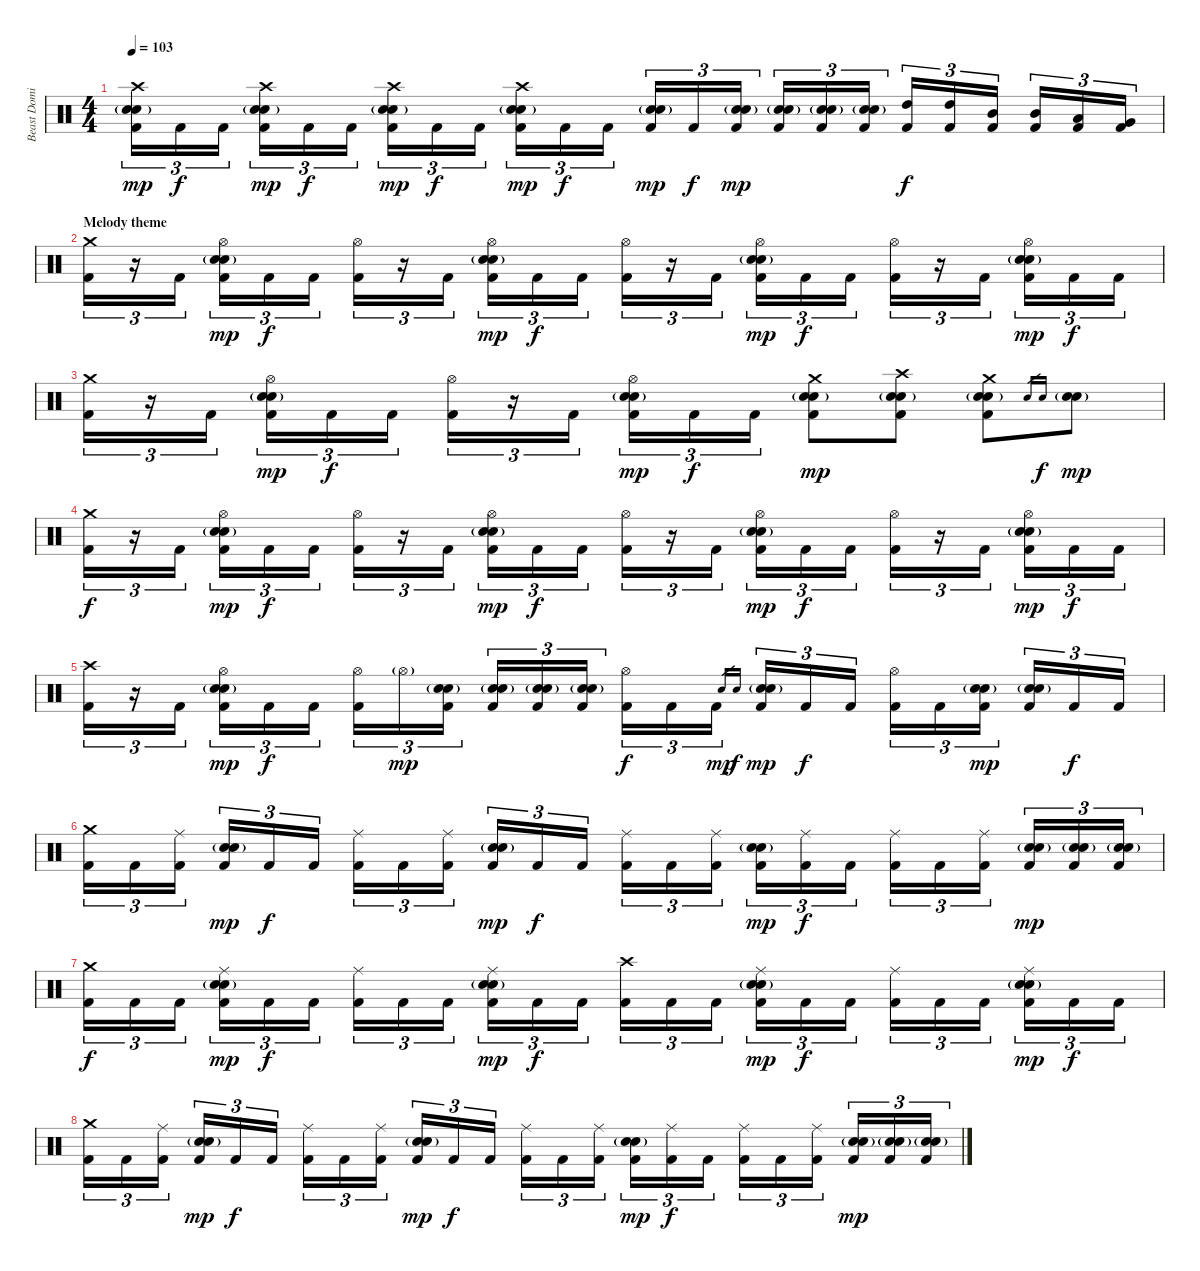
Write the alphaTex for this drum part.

\track ("Beast Dominator" "Beast Domi") {instrument percussion}
\staff {score}
\articulation defaults
\ts (4 4)
\tempo 103
\clef neutral
\ks c
("Crash high (hit)" "Electric Snare (hit)"{g} "Snare (hit) 2" "Kick (hit) 2").16{tu (3 2) dy mp} "Kick (hit) 2".16{tu (3 2) dy f} "Kick (hit) 2".16{tu (3 2)} ("Crash high (hit)" "Electric Snare (hit)"{g} "Snare (hit) 2" "Kick (hit) 2").16{tu (3 2) dy mp} "Kick (hit) 2".16{tu (3 2) dy f} "Kick (hit) 2".16{tu (3 2)} ("Crash high (hit)" "Electric Snare (hit)"{g} "Snare (hit) 2" "Kick (hit) 2").16{tu (3 2) dy mp} "Kick (hit) 2".16{tu (3 2) dy f} "Kick (hit) 2".16{tu (3 2)} ("Crash high (hit)" "Electric Snare (hit)"{g} "Snare (hit) 2" "Kick (hit) 2").16{tu (3 2) dy mp} "Kick (hit) 2".16{tu (3 2) dy f} "Kick (hit) 2".16{tu (3 2)} ("Electric Snare (hit)"{g} "Snare (hit) 2" "Kick (hit) 2").16{tu (3 2) dy mp} "Kick (hit) 2".16{tu (3 2) dy f} ("Electric Snare (hit)"{g} "Snare (hit) 2" "Kick (hit) 2").16{tu (3 2) dy mp} ("Electric Snare (hit)"{g} "Snare (hit) 2" "Kick (hit) 2").16{tu (3 2)} ("Electric Snare (hit)"{g} "Snare (hit) 2" "Kick (hit) 2").16{tu (3 2)} ("Electric Snare (hit)"{g} "Snare (hit) 2" "Kick (hit) 2").16{tu (3 2)} ("High Tom (hit)" "Kick (hit) 2").16{tu (3 2) dy f} ("High Tom (hit)" "Kick (hit) 2").16{tu (3 2)} ("Mid Tom (hit)" "Kick (hit) 2").16{tu (3 2)} ("Mid Tom (hit)" "Kick (hit) 2").16{tu (3 2)} ("Low Tom (hit)" "Kick (hit) 2").16{tu (3 2)} ("Very Low Tom (hit)" "Kick (hit) 2").16{tu (3 2)} |
\section ("" "Melody theme")
("Crash medium (hit)" "Kick (hit) 2").16{tu (3 2)} r.16{tu (3 2)} "Kick (hit) 2".16{tu (3 2)} ("Hi-Hat (open)" "Electric Snare (hit)"{g} "Snare (hit) 2" "Kick (hit) 2").16{tu (3 2) dy mp} "Kick (hit) 2".16{tu (3 2) dy f} "Kick (hit) 2".16{tu (3 2)} ("Hi-Hat (open)" "Kick (hit) 2").16{tu (3 2)} r.16{tu (3 2)} "Kick (hit) 2".16{tu (3 2)} ("Hi-Hat (open)" "Electric Snare (hit)"{g} "Snare (hit) 2" "Kick (hit) 2").16{tu (3 2) dy mp} "Kick (hit) 2".16{tu (3 2) dy f} "Kick (hit) 2".16{tu (3 2)} ("Hi-Hat (open)" "Kick (hit) 2").16{tu (3 2)} r.16{tu (3 2)} "Kick (hit) 2".16{tu (3 2)} ("Hi-Hat (open)" "Electric Snare (hit)"{g} "Snare (hit) 2" "Kick (hit) 2").16{tu (3 2) dy mp} "Kick (hit) 2".16{tu (3 2) dy f} "Kick (hit) 2".16{tu (3 2)} ("Hi-Hat (open)" "Kick (hit) 2").16{tu (3 2)} r.16{tu (3 2)} "Kick (hit) 2".16{tu (3 2)} ("Hi-Hat (open)" "Electric Snare (hit)"{g} "Snare (hit) 2" "Kick (hit) 2").16{tu (3 2) dy mp} "Kick (hit) 2".16{tu (3 2) dy f} "Kick (hit) 2".16{tu (3 2)} |
("Crash medium (hit)" "Kick (hit) 2").16{tu (3 2)} r.16{tu (3 2)} "Kick (hit) 2".16{tu (3 2)} ("Hi-Hat (open)" "Electric Snare (hit)"{g} "Snare (hit) 2" "Kick (hit) 2").16{tu (3 2) dy mp} "Kick (hit) 2".16{tu (3 2) dy f} "Kick (hit) 2".16{tu (3 2)} ("Hi-Hat (open)" "Kick (hit) 2").16{tu (3 2)} r.16{tu (3 2)} "Kick (hit) 2".16{tu (3 2)} ("Hi-Hat (open)" "Electric Snare (hit)"{g} "Snare (hit) 2" "Kick (hit) 2").16{tu (3 2) dy mp} "Kick (hit) 2".16{tu (3 2) dy f} "Kick (hit) 2".16{tu (3 2)} ("Crash medium (hit)" "Electric Snare (hit)"{g} "Snare (hit) 2" "Kick (hit) 2").8{dy mp} ("Crash high (hit)" "Electric Snare (hit)"{g} "Snare (hit) 2" "Kick (hit) 2").8 ("Crash medium (hit)" "Electric Snare (hit)"{g} "Snare (hit) 2" "Kick (hit) 2").8 "Electric Snare (hit)".16{gr} "Snare (hit) 2".16{gr dy f} ("Electric Snare (hit)"{g} "Snare (hit) 2").8{dy mp} |
("Crash medium (hit)" "Kick (hit) 2").16{tu (3 2) dy f} r.16{tu (3 2)} "Kick (hit) 2".16{tu (3 2)} ("Hi-Hat (open)" "Electric Snare (hit)"{g} "Snare (hit) 2" "Kick (hit) 2").16{tu (3 2) dy mp} "Kick (hit) 2".16{tu (3 2) dy f} "Kick (hit) 2".16{tu (3 2)} ("Hi-Hat (open)" "Kick (hit) 2").16{tu (3 2)} r.16{tu (3 2)} "Kick (hit) 2".16{tu (3 2)} ("Hi-Hat (open)" "Electric Snare (hit)"{g} "Snare (hit) 2" "Kick (hit) 2").16{tu (3 2) dy mp} "Kick (hit) 2".16{tu (3 2) dy f} "Kick (hit) 2".16{tu (3 2)} ("Hi-Hat (open)" "Kick (hit) 2").16{tu (3 2)} r.16{tu (3 2)} "Kick (hit) 2".16{tu (3 2)} ("Hi-Hat (open)" "Electric Snare (hit)"{g} "Snare (hit) 2" "Kick (hit) 2").16{tu (3 2) dy mp} "Kick (hit) 2".16{tu (3 2) dy f} "Kick (hit) 2".16{tu (3 2)} ("Hi-Hat (open)" "Kick (hit) 2").16{tu (3 2)} r.16{tu (3 2)} "Kick (hit) 2".16{tu (3 2)} ("Hi-Hat (open)" "Electric Snare (hit)"{g} "Snare (hit) 2" "Kick (hit) 2").16{tu (3 2) dy mp} "Kick (hit) 2".16{tu (3 2) dy f} "Kick (hit) 2".16{tu (3 2)} |
("Crash high (hit)" "Kick (hit) 2").16{tu (3 2)} r.16{tu (3 2)} "Kick (hit) 2".16{tu (3 2)} ("Hi-Hat (open)" "Electric Snare (hit)"{g} "Snare (hit) 2" "Kick (hit) 2").16{tu (3 2) dy mp} "Kick (hit) 2".16{tu (3 2) dy f} "Kick (hit) 2".16{tu (3 2)} ("Hi-Hat (open)" "Kick (hit) 2").16{tu (3 2)} "Hi-Hat (open)"{g}.16{tu (3 2) dy mp} ("Electric Snare (hit)"{g} "Snare (hit) 2" "Kick (hit) 2").16{tu (3 2)} ("Electric Snare (hit)"{g} "Snare (hit) 2" "Kick (hit) 2").16{tu (3 2)} ("Electric Snare (hit)"{g} "Snare (hit) 2" "Kick (hit) 2").16{tu (3 2)} ("Electric Snare (hit)"{g} "Snare (hit) 2" "Kick (hit) 2").16{tu (3 2)} ("Hi-Hat (open)" "Kick (hit) 2").16{tu (3 2) dy f} "Kick (hit) 2".16{tu (3 2)} "Kick (hit) 2".16{tu (3 2)} "Electric Snare (hit)".16{gr dy mp} "Snare (hit) 2".16{gr dy f} ("Electric Snare (hit)"{g} "Snare (hit) 2" "Kick (hit) 2").16{tu (3 2) dy mp} "Kick (hit) 2".16{tu (3 2) dy f} "Kick (hit) 2".16{tu (3 2)} ("Hi-Hat (open)" "Kick (hit) 2").16{tu (3 2)} "Kick (hit) 2".16{tu (3 2)} ("Electric Snare (hit)"{g} "Snare (hit) 2" "Kick (hit) 2").16{tu (3 2) dy mp} ("Electric Snare (hit)"{g} "Snare (hit) 2" "Kick (hit) 2").16{tu (3 2)} "Kick (hit) 2".16{tu (3 2) dy f} "Kick (hit) 2".16{tu (3 2)} |
\section ("" "")
("Crash medium (hit)" "Kick (hit) 2").16{tu (3 2)} "Kick (hit) 2".16{tu (3 2)} ("Ride (middle)" "Kick (hit) 2").16{tu (3 2)} ("Electric Snare (hit)"{g} "Snare (hit) 2" "Kick (hit) 2").16{tu (3 2) dy mp} "Kick (hit) 2".16{tu (3 2) dy f} "Kick (hit) 2".16{tu (3 2)} ("Ride (middle)" "Kick (hit) 2").16{tu (3 2)} "Kick (hit) 2".16{tu (3 2)} ("Ride (middle)" "Kick (hit) 2").16{tu (3 2)} ("Electric Snare (hit)"{g} "Snare (hit) 2" "Kick (hit) 2").16{tu (3 2) dy mp} "Kick (hit) 2".16{tu (3 2) dy f} "Kick (hit) 2".16{tu (3 2)} ("Ride (middle)" "Kick (hit) 2").16{tu (3 2)} "Kick (hit) 2".16{tu (3 2)} ("Ride (middle)" "Kick (hit) 2").16{tu (3 2)} ("Electric Snare (hit)"{g} "Snare (hit) 2" "Kick (hit) 2").16{tu (3 2) dy mp} ("Ride (middle)" "Kick (hit) 2").16{tu (3 2) dy f} "Kick (hit) 2".16{tu (3 2)} ("Ride (middle)" "Kick (hit) 2").16{tu (3 2)} "Kick (hit) 2".16{tu (3 2)} ("Ride (middle)" "Kick (hit) 2").16{tu (3 2)} ("Electric Snare (hit)"{g} "Snare (hit) 2" "Kick (hit) 2").16{tu (3 2) dy mp} ("Electric Snare (hit)"{g} "Snare (hit) 2" "Kick (hit) 2").16{tu (3 2)} ("Electric Snare (hit)"{g} "Snare (hit) 2" "Kick (hit) 2").16{tu (3 2)} |
("Crash medium (hit)" "Kick (hit) 2").16{tu (3 2) dy f} "Kick (hit) 2".16{tu (3 2)} "Kick (hit) 2".16{tu (3 2)} ("Ride (middle)" "Electric Snare (hit)"{g} "Snare (hit) 2" "Kick (hit) 2").16{tu (3 2) dy mp} "Kick (hit) 2".16{tu (3 2) dy f} "Kick (hit) 2".16{tu (3 2)} ("Ride (middle)" "Kick (hit) 2").16{tu (3 2)} "Kick (hit) 2".16{tu (3 2)} "Kick (hit) 2".16{tu (3 2)} ("Ride (middle)" "Electric Snare (hit)"{g} "Snare (hit) 2" "Kick (hit) 2").16{tu (3 2) dy mp} "Kick (hit) 2".16{tu (3 2) dy f} "Kick (hit) 2".16{tu (3 2)} ("Crash high (hit)" "Kick (hit) 2").16{tu (3 2)} "Kick (hit) 2".16{tu (3 2)} "Kick (hit) 2".16{tu (3 2)} ("Ride (middle)" "Electric Snare (hit)"{g} "Snare (hit) 2" "Kick (hit) 2").16{tu (3 2) dy mp} "Kick (hit) 2".16{tu (3 2) dy f} "Kick (hit) 2".16{tu (3 2)} ("Ride (middle)" "Kick (hit) 2").16{tu (3 2)} "Kick (hit) 2".16{tu (3 2)} "Kick (hit) 2".16{tu (3 2)} ("Ride (middle)" "Electric Snare (hit)"{g} "Snare (hit) 2" "Kick (hit) 2").16{tu (3 2) dy mp} "Kick (hit) 2".16{tu (3 2) dy f} "Kick (hit) 2".16{tu (3 2)} |
("Crash medium (hit)" "Kick (hit) 2").16{tu (3 2)} "Kick (hit) 2".16{tu (3 2)} ("Ride (middle)" "Kick (hit) 2").16{tu (3 2)} ("Electric Snare (hit)"{g} "Snare (hit) 2" "Kick (hit) 2").16{tu (3 2) dy mp} "Kick (hit) 2".16{tu (3 2) dy f} "Kick (hit) 2".16{tu (3 2)} ("Ride (middle)" "Kick (hit) 2").16{tu (3 2)} "Kick (hit) 2".16{tu (3 2)} ("Ride (middle)" "Kick (hit) 2").16{tu (3 2)} ("Electric Snare (hit)"{g} "Snare (hit) 2" "Kick (hit) 2").16{tu (3 2) dy mp} "Kick (hit) 2".16{tu (3 2) dy f} "Kick (hit) 2".16{tu (3 2)} ("Ride (middle)" "Kick (hit) 2").16{tu (3 2)} "Kick (hit) 2".16{tu (3 2)} ("Ride (middle)" "Kick (hit) 2").16{tu (3 2)} ("Electric Snare (hit)"{g} "Snare (hit) 2" "Kick (hit) 2").16{tu (3 2) dy mp} ("Ride (middle)" "Kick (hit) 2").16{tu (3 2) dy f} "Kick (hit) 2".16{tu (3 2)} ("Ride (middle)" "Kick (hit) 2").16{tu (3 2)} "Kick (hit) 2".16{tu (3 2)} ("Ride (middle)" "Kick (hit) 2").16{tu (3 2)} ("Electric Snare (hit)"{g} "Snare (hit) 2" "Kick (hit) 2").16{tu (3 2) dy mp} ("Electric Snare (hit)"{g} "Snare (hit) 2" "Kick (hit) 2").16{tu (3 2)} ("Electric Snare (hit)"{g} "Snare (hit) 2" "Kick (hit) 2").16{tu (3 2)}
